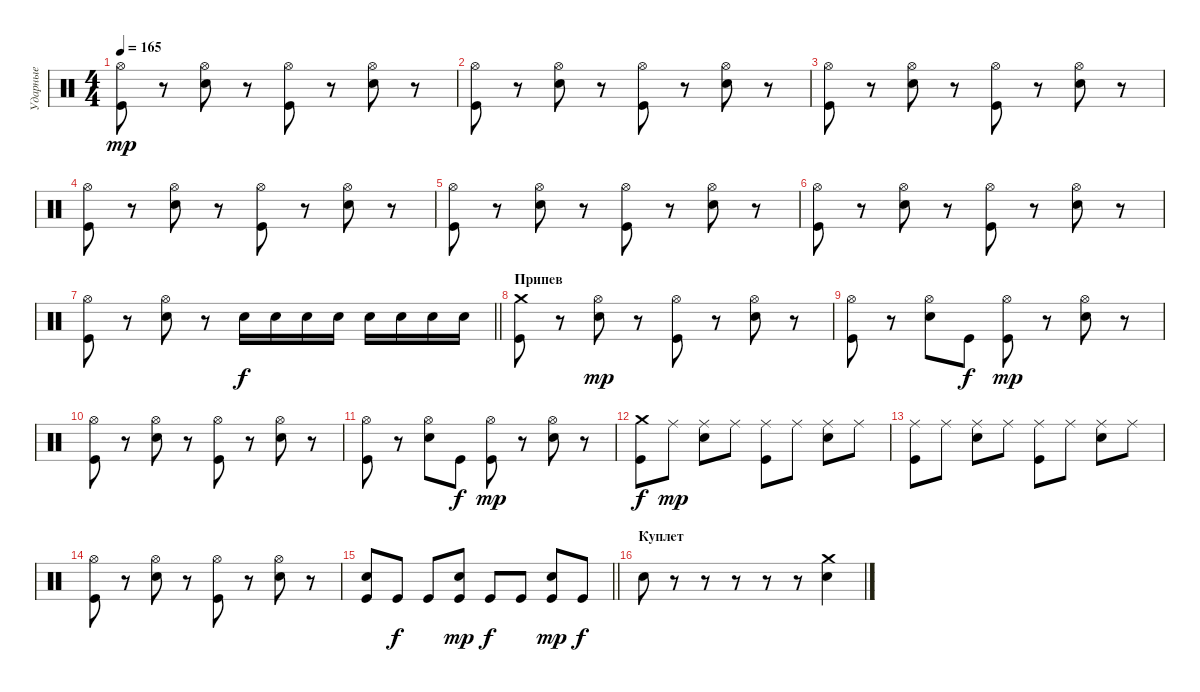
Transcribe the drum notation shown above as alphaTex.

\track ("Ударные" "Ударные") {instrument percussion}
\staff {score}
\articulation defaults
\ts (4 4)
\tempo 165
\clef neutral
\ks c
("Hi-Hat (open)" "Kick (hit)").8{dy mp} r.8 ("Hi-Hat (open)" "Electric Snare (hit)").8 r.8 ("Hi-Hat (open)" "Kick (hit)").8 r.8 ("Hi-Hat (open)" "Electric Snare (hit)").8 r.8 |
("Hi-Hat (open)" "Kick (hit)").8 r.8 ("Hi-Hat (open)" "Electric Snare (hit)").8 r.8 ("Hi-Hat (open)" "Kick (hit)").8 r.8 ("Hi-Hat (open)" "Electric Snare (hit)").8 r.8 |
("Hi-Hat (open)" "Kick (hit)").8 r.8 ("Hi-Hat (open)" "Electric Snare (hit)").8 r.8 ("Hi-Hat (open)" "Kick (hit)").8 r.8 ("Hi-Hat (open)" "Electric Snare (hit)").8 r.8 |
("Hi-Hat (open)" "Kick (hit)").8 r.8 ("Hi-Hat (open)" "Electric Snare (hit)").8 r.8 ("Hi-Hat (open)" "Kick (hit)").8 r.8 ("Hi-Hat (open)" "Electric Snare (hit)").8 r.8 |
("Hi-Hat (open)" "Kick (hit)").8 r.8 ("Hi-Hat (open)" "Electric Snare (hit)").8 r.8 ("Hi-Hat (open)" "Kick (hit)").8 r.8 ("Hi-Hat (open)" "Electric Snare (hit)").8 r.8 |
("Hi-Hat (open)" "Kick (hit)").8 r.8 ("Hi-Hat (open)" "Electric Snare (hit)").8 r.8 ("Hi-Hat (open)" "Kick (hit)").8 r.8 ("Hi-Hat (open)" "Electric Snare (hit)").8 r.8 |
\barLineRight lightlight
("Hi-Hat (open)" "Kick (hit)").8 r.8 ("Hi-Hat (open)" "Electric Snare (hit)").8 r.8 "Electric Snare (hit)".16{dy f} "Electric Snare (hit)".16 "Electric Snare (hit)".16 "Electric Snare (hit)".16 "Electric Snare (hit)".16 "Electric Snare (hit)".16 "Electric Snare (hit)".16 "Electric Snare (hit)".16 |
\section ("" "Припев")
("Crash medium (hit)" "Kick (hit)").8 r.8 ("Hi-Hat (open)" "Electric Snare (hit)").8{dy mp} r.8 ("Hi-Hat (open)" "Kick (hit)").8 r.8 ("Hi-Hat (open)" "Electric Snare (hit)").8 r.8 |
("Hi-Hat (open)" "Kick (hit)").8 r.8 ("Hi-Hat (open)" "Electric Snare (hit)").8 "Kick (hit)".8{dy f} ("Hi-Hat (open)" "Kick (hit)").8{dy mp} r.8 ("Hi-Hat (open)" "Electric Snare (hit)").8 r.8 |
("Hi-Hat (open)" "Kick (hit)").8 r.8 ("Hi-Hat (open)" "Electric Snare (hit)").8 r.8 ("Hi-Hat (open)" "Kick (hit)").8 r.8 ("Hi-Hat (open)" "Electric Snare (hit)").8 r.8 |
("Hi-Hat (open)" "Kick (hit)").8 r.8 ("Hi-Hat (open)" "Electric Snare (hit)").8 "Kick (hit)".8{dy f} ("Hi-Hat (open)" "Kick (hit)").8{dy mp} r.8 ("Hi-Hat (open)" "Electric Snare (hit)").8 r.8 |
("Crash medium (hit)" "Kick (hit)").8{dy f} "Ride (middle)".8{dy mp} ("Ride (middle)" "Electric Snare (hit)").8 "Ride (middle)".8 ("Ride (middle)" "Kick (hit)").8 "Ride (middle)".8 ("Ride (middle)" "Electric Snare (hit)").8 "Ride (middle)".8 |
("Ride (middle)" "Kick (hit)").8 "Ride (middle)".8 ("Ride (middle)" "Electric Snare (hit)").8 "Ride (middle)".8 ("Ride (middle)" "Kick (hit)").8 "Ride (middle)".8 ("Ride (middle)" "Electric Snare (hit)").8 "Ride (middle)".8 |
("Hi-Hat (open)" "Kick (hit)").8 r.8 ("Hi-Hat (open)" "Electric Snare (hit)").8 r.8 ("Hi-Hat (open)" "Kick (hit)").8 r.8 ("Hi-Hat (open)" "Electric Snare (hit)").8 r.8 |
\barLineRight lightlight
("Electric Snare (hit)" "Kick (hit)").8 "Kick (hit)".8{dy f} "Kick (hit)".8 ("Electric Snare (hit)" "Kick (hit)").8{dy mp} "Kick (hit)".8{dy f} "Kick (hit)".8 ("Electric Snare (hit)" "Kick (hit)").8{dy mp} "Kick (hit)".8{dy f} |
\section ("" "Куплет")
"Electric Snare (hit)".8 r.8 r.8 r.8 r.8 r.8 ("Crash medium (hit)" "Electric Snare (hit)").4
